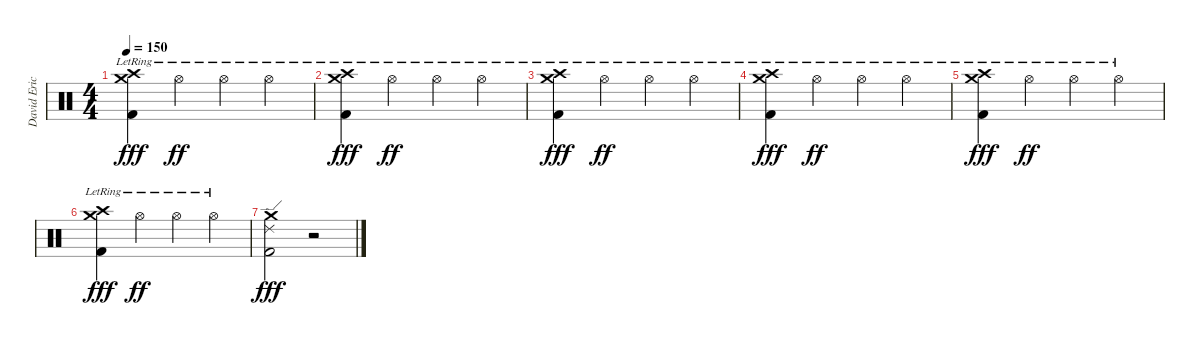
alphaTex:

\track ("David Eric Grohl" "David Eric") {instrument percussion}
\staff {score}
\articulation defaults
\ts (4 4)
\tempo 150
\clef neutral
\ks c
("Crash medium (hit)"{lr} "Crash high (hit)"{lr} "Kick (hit) 2").4{dy fff} "Hi-Hat (open)"{lr}.4{dy ff} "Hi-Hat (open)"{lr}.4 "Hi-Hat (open)"{lr}.4 |
("Crash medium (hit)"{lr} "Crash high (hit)"{lr} "Kick (hit) 2").4{dy fff} "Hi-Hat (open)"{lr}.4{dy ff} "Hi-Hat (open)"{lr}.4 "Hi-Hat (open)"{lr}.4 |
("Crash medium (hit)"{lr} "Crash high (hit)"{lr} "Kick (hit) 2").4{dy fff} "Hi-Hat (open)"{lr}.4{dy ff} "Hi-Hat (open)"{lr}.4 "Hi-Hat (open)"{lr}.4 |
("Crash medium (hit)"{lr} "Crash high (hit)"{lr} "Kick (hit) 2").4{dy fff} "Hi-Hat (open)"{lr}.4{dy ff} "Hi-Hat (open)"{lr}.4 "Hi-Hat (open)"{lr}.4 |
("Crash medium (hit)"{lr} "Crash high (hit)"{lr} "Kick (hit) 2").4{dy fff} "Hi-Hat (open)"{lr}.4{dy ff} "Hi-Hat (open)"{lr}.4 "Hi-Hat (open)"{lr}.4 |
("Crash medium (hit)"{lr} "Crash high (hit)"{lr} "Kick (hit) 2").4{dy fff} "Hi-Hat (open)"{lr}.4{dy ff} "Hi-Hat (open)"{lr}.4 "Hi-Hat (open)"{lr}.4 |
("Ride (edge) 2" "Crash medium (hit)" "Kick (hit) 2").2{dy fff} r.2
